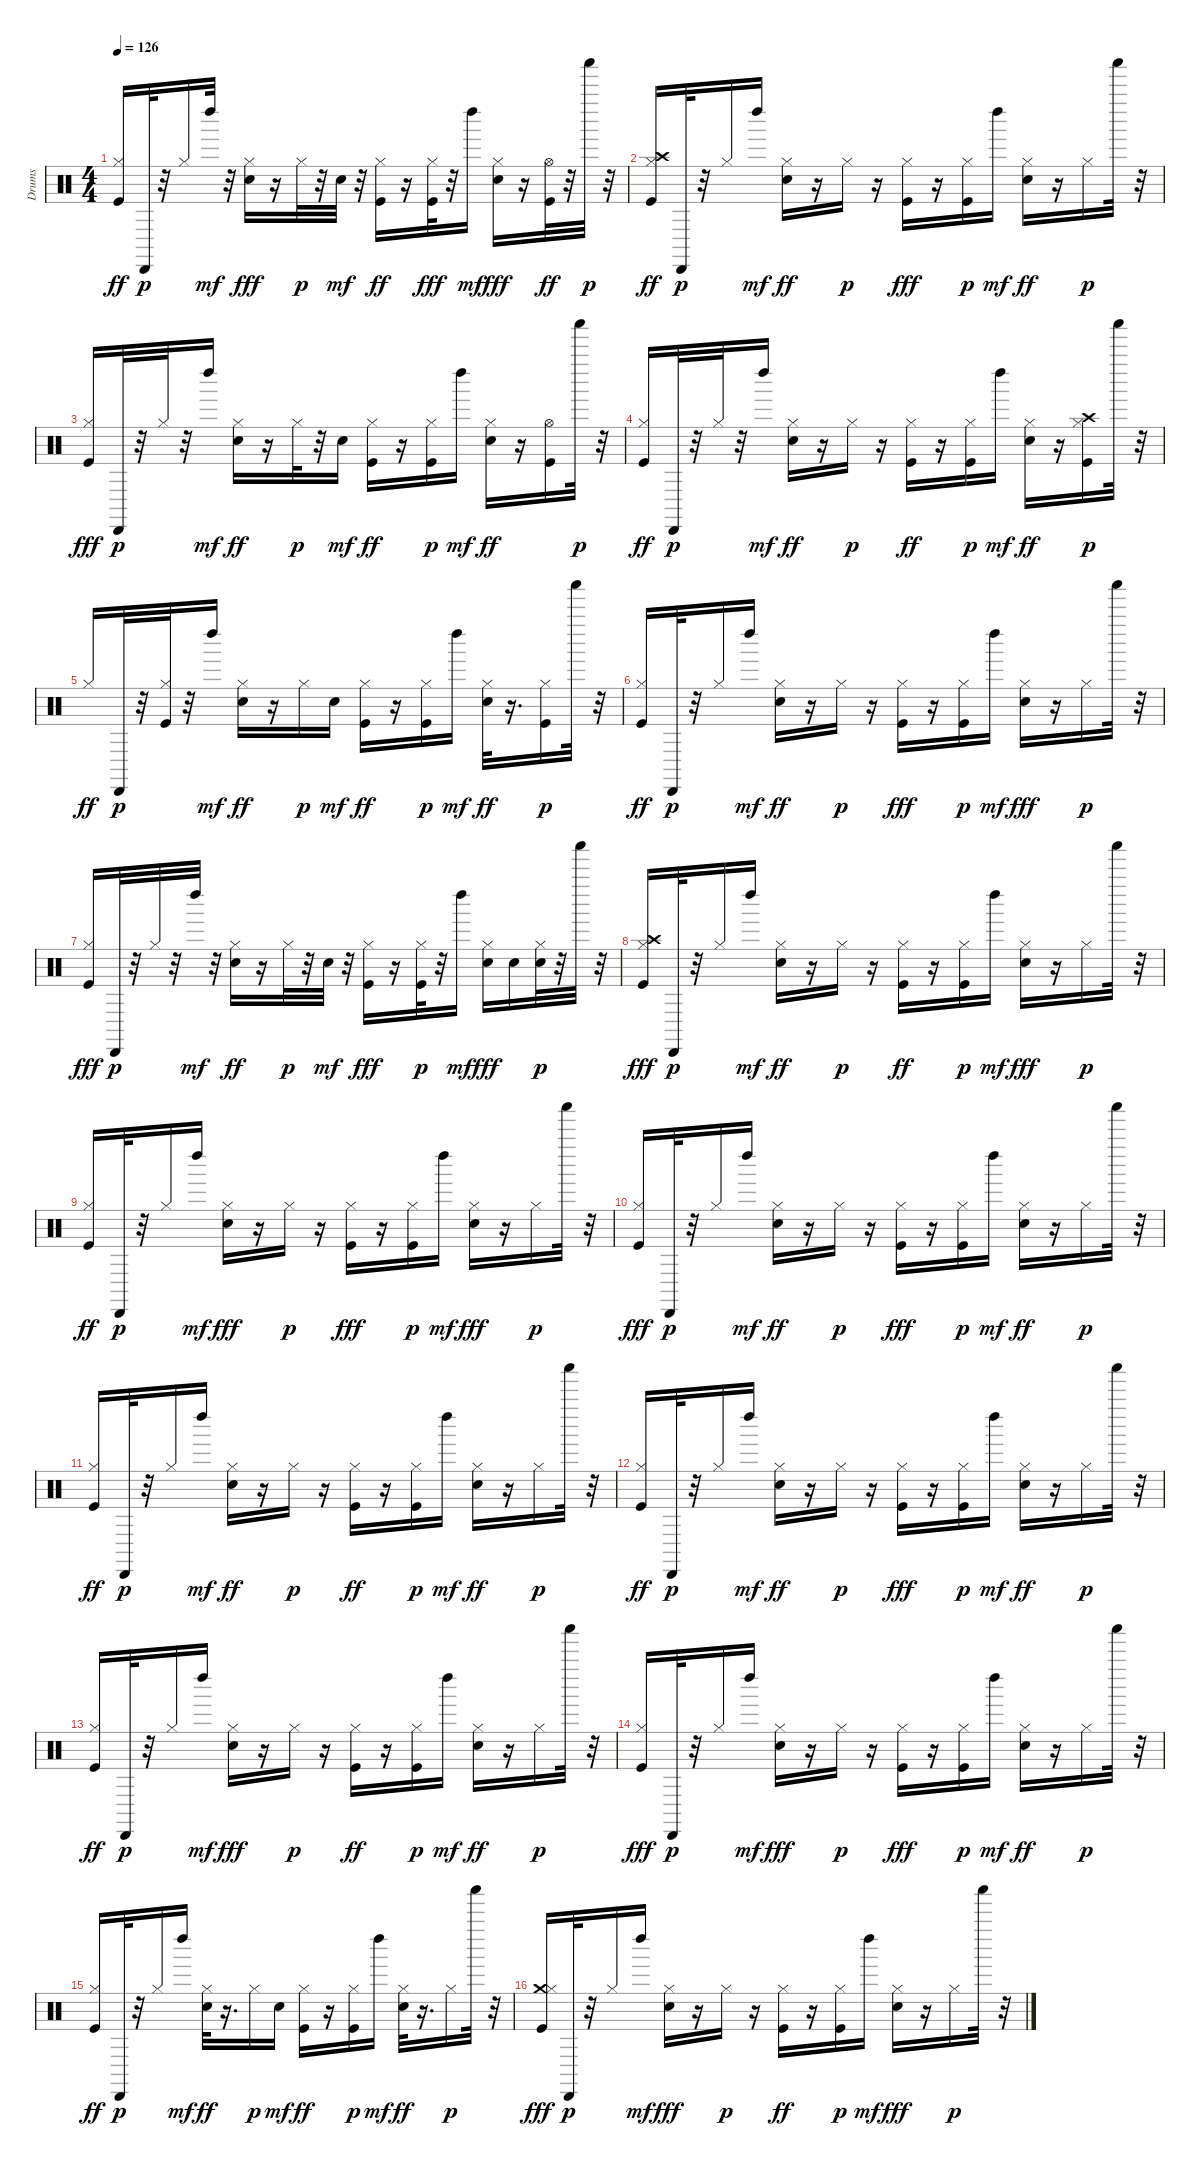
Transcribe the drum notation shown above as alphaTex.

\track ("Drums" "Drums") {instrument percussion}
\staff {score}
\articulation defaults
\ts (4 4)
\tempo 126
\clef neutral
\ks c
("Kick (hit)" "Hi-Hat (closed)").16{dy ff} "Cabasa (hit)".32{dy p} r.32 "Hi-Hat (closed)".16 "Left Maraca (hit)".32{dy mf} r.32 ("Hi-Hat (closed)" "Electric Snare (hit)").16{dy fff} r.16 "Hi-Hat (closed)".32{dy p} r.32 "Electric Snare (hit)".32{dy mf} r.32 ("Kick (hit)" "Hi-Hat (closed)").16{dy ff} r.16 ("Hi-Hat (closed)" "Kick (hit)").32{dy fff} r.32 "Left Maraca (hit)".16{dy mf} ("Hi-Hat (closed)" "Electric Snare (hit)").16{dy fff} r.16 ("Kick (hit)" "Hi-Hat (open)").32{dy ff} r.32 "Shaker (hit)".32{dy p} r.32 |
("Crash high (hit)" "Kick (hit)" "Hi-Hat (closed)").16{dy ff} "Cabasa (hit)".32{dy p} r.32 "Hi-Hat (closed)".16 "Left Maraca (hit)".16{dy mf} ("Electric Snare (hit)" "Hi-Hat (closed)").16{dy ff} r.16 "Hi-Hat (closed)".16{dy p} r.16 ("Hi-Hat (closed)" "Kick (hit)").16{dy fff} r.16 ("Kick (hit)" "Hi-Hat (closed)").16{dy p} "Left Maraca (hit)".16{dy mf} ("Electric Snare (hit)" "Hi-Hat (closed)").16{dy ff} r.16 "Hi-Hat (closed)".16{dy p} "Shaker (hit)".32 r.32 |
("Hi-Hat (closed)" "Kick (hit)").16{dy fff} "Cabasa (hit)".32{dy p} r.32 "Hi-Hat (closed)".32 r.32 "Left Maraca (hit)".16{dy mf} ("Electric Snare (hit)" "Hi-Hat (closed)").16{dy ff} r.16 "Hi-Hat (closed)".32{dy p} r.32 "Electric Snare (hit)".16{dy mf} ("Kick (hit)" "Hi-Hat (closed)").16{dy ff} r.16 ("Kick (hit)" "Hi-Hat (closed)").16{dy p} "Left Maraca (hit)".16{dy mf} ("Electric Snare (hit)" "Hi-Hat (closed)").16{dy ff} r.16 ("Kick (hit)" "Hi-Hat (open)").16 "Shaker (hit)".32{dy p} r.32 |
("Kick (hit)" "Hi-Hat (closed)").16{dy ff} "Cabasa (hit)".32{dy p} r.32 "Hi-Hat (closed)".32 r.32 "Left Maraca (hit)".16{dy mf} ("Electric Snare (hit)" "Hi-Hat (closed)").16{dy ff} r.16 "Hi-Hat (closed)".16{dy p} r.16 ("Kick (hit)" "Hi-Hat (closed)").16{dy ff} r.16 ("Kick (hit)" "Hi-Hat (closed)").16{dy p} "Left Maraca (hit)".16{dy mf} ("Electric Snare (hit)" "Hi-Hat (closed)").16{dy ff} r.16 ("Crash high (hit)" "Kick (hit)" "Hi-Hat (closed)").16{dy p} "Shaker (hit)".32 r.32 |
"Hi-Hat (closed)".16{dy ff} "Cabasa (hit)".32{dy p} r.32 ("Kick (hit)" "Hi-Hat (closed)").32 r.32 "Left Maraca (hit)".16{dy mf} ("Electric Snare (hit)" "Hi-Hat (closed)").16{dy ff} r.16 "Hi-Hat (closed)".16{dy p} "Electric Snare (hit)".16{dy mf} ("Kick (hit)" "Hi-Hat (closed)").16{dy ff} r.16 ("Kick (hit)" "Hi-Hat (closed)").16{dy p} "Left Maraca (hit)".16{dy mf} ("Electric Snare (hit)" "Hi-Hat (closed)").32{dy ff} r.16{d} ("Kick (hit)" "Hi-Hat (closed)").16{dy p} "Shaker (hit)".32 r.32 |
("Kick (hit)" "Hi-Hat (closed)").16{dy ff} "Cabasa (hit)".32{dy p} r.32 "Hi-Hat (closed)".16 "Left Maraca (hit)".16{dy mf} ("Electric Snare (hit)" "Hi-Hat (closed)").16{dy ff} r.16 "Hi-Hat (closed)".16{dy p} r.16 ("Hi-Hat (closed)" "Kick (hit)").16{dy fff} r.16 ("Kick (hit)" "Hi-Hat (closed)").16{dy p} "Left Maraca (hit)".16{dy mf} ("Hi-Hat (closed)" "Electric Snare (hit)").16{dy fff} r.16 "Hi-Hat (closed)".16{dy p} "Shaker (hit)".32 r.32 |
("Hi-Hat (closed)" "Kick (hit)").16{dy fff} "Cabasa (hit)".32{dy p} r.32 "Hi-Hat (closed)".32 r.32 "Left Maraca (hit)".32{dy mf} r.32 ("Electric Snare (hit)" "Hi-Hat (closed)").16{dy ff} r.16 "Hi-Hat (closed)".32{dy p} r.32 "Electric Snare (hit)".32{dy mf} r.32 ("Hi-Hat (closed)" "Kick (hit)").16{dy fff} r.16 ("Kick (hit)" "Hi-Hat (closed)").32{dy p} r.32 "Left Maraca (hit)".16{dy mf} ("Hi-Hat (closed)" "Electric Snare (hit)").16{dy fff} "Electric Snare (hit)".16 ("Electric Snare (hit)" "Hi-Hat (closed)").32{dy p} r.32 "Shaker (hit)".32 r.32 |
("Crash high (hit)" "Hi-Hat (closed)" "Kick (hit)").16{dy fff} "Cabasa (hit)".32{dy p} r.32 "Hi-Hat (closed)".16 "Left Maraca (hit)".16{dy mf} ("Electric Snare (hit)" "Hi-Hat (closed)").16{dy ff} r.16 "Hi-Hat (closed)".16{dy p} r.16 ("Kick (hit)" "Hi-Hat (closed)").16{dy ff} r.16 ("Kick (hit)" "Hi-Hat (closed)").16{dy p} "Left Maraca (hit)".16{dy mf} ("Hi-Hat (closed)" "Electric Snare (hit)").16{dy fff} r.16 "Hi-Hat (closed)".16{dy p} "Shaker (hit)".32 r.32 |
("Kick (hit)" "Hi-Hat (closed)").16{dy ff} "Cabasa (hit)".32{dy p} r.32 "Hi-Hat (closed)".16 "Left Maraca (hit)".16{dy mf} ("Hi-Hat (closed)" "Electric Snare (hit)").16{dy fff} r.16 "Hi-Hat (closed)".16{dy p} r.16 ("Hi-Hat (closed)" "Kick (hit)").16{dy fff} r.16 ("Kick (hit)" "Hi-Hat (closed)").16{dy p} "Left Maraca (hit)".16{dy mf} ("Hi-Hat (closed)" "Electric Snare (hit)").16{dy fff} r.16 "Hi-Hat (closed)".16{dy p} "Shaker (hit)".32 r.32 |
("Hi-Hat (closed)" "Kick (hit)").16{dy fff} "Cabasa (hit)".32{dy p} r.32 "Hi-Hat (closed)".16 "Left Maraca (hit)".16{dy mf} ("Electric Snare (hit)" "Hi-Hat (closed)").16{dy ff} r.16 "Hi-Hat (closed)".16{dy p} r.16 ("Hi-Hat (closed)" "Kick (hit)").16{dy fff} r.16 ("Kick (hit)" "Hi-Hat (closed)").16{dy p} "Left Maraca (hit)".16{dy mf} ("Electric Snare (hit)" "Hi-Hat (closed)").16{dy ff} r.16 "Hi-Hat (closed)".16{dy p} "Shaker (hit)".32 r.32 |
("Kick (hit)" "Hi-Hat (closed)").16{dy ff} "Cabasa (hit)".32{dy p} r.32 "Hi-Hat (closed)".16 "Left Maraca (hit)".16{dy mf} ("Electric Snare (hit)" "Hi-Hat (closed)").16{dy ff} r.16 "Hi-Hat (closed)".16{dy p} r.16 ("Kick (hit)" "Hi-Hat (closed)").16{dy ff} r.16 ("Kick (hit)" "Hi-Hat (closed)").16{dy p} "Left Maraca (hit)".16{dy mf} ("Electric Snare (hit)" "Hi-Hat (closed)").16{dy ff} r.16 "Hi-Hat (closed)".16{dy p} "Shaker (hit)".32 r.32 |
("Kick (hit)" "Hi-Hat (closed)").16{dy ff} "Cabasa (hit)".32{dy p} r.32 "Hi-Hat (closed)".16 "Left Maraca (hit)".16{dy mf} ("Electric Snare (hit)" "Hi-Hat (closed)").16{dy ff} r.16 "Hi-Hat (closed)".16{dy p} r.16 ("Hi-Hat (closed)" "Kick (hit)").16{dy fff} r.16 ("Kick (hit)" "Hi-Hat (closed)").16{dy p} "Left Maraca (hit)".16{dy mf} ("Electric Snare (hit)" "Hi-Hat (closed)").16{dy ff} r.16 "Hi-Hat (closed)".16{dy p} "Shaker (hit)".32 r.32 |
("Kick (hit)" "Hi-Hat (closed)").16{dy ff} "Cabasa (hit)".32{dy p} r.32 "Hi-Hat (closed)".16 "Left Maraca (hit)".16{dy mf} ("Hi-Hat (closed)" "Electric Snare (hit)").16{dy fff} r.16 "Hi-Hat (closed)".16{dy p} r.16 ("Kick (hit)" "Hi-Hat (closed)").16{dy ff} r.16 ("Kick (hit)" "Hi-Hat (closed)").16{dy p} "Left Maraca (hit)".16{dy mf} ("Electric Snare (hit)" "Hi-Hat (closed)").16{dy ff} r.16 "Hi-Hat (closed)".16{dy p} "Shaker (hit)".32 r.32 |
("Hi-Hat (closed)" "Kick (hit)").16{dy fff} "Cabasa (hit)".32{dy p} r.32 "Hi-Hat (closed)".16 "Left Maraca (hit)".16{dy mf} ("Hi-Hat (closed)" "Electric Snare (hit)").16{dy fff} r.16 "Hi-Hat (closed)".16{dy p} r.16 ("Hi-Hat (closed)" "Kick (hit)").16{dy fff} r.16 ("Kick (hit)" "Hi-Hat (closed)").16{dy p} "Left Maraca (hit)".16{dy mf} ("Electric Snare (hit)" "Hi-Hat (closed)").16{dy ff} r.16 "Hi-Hat (closed)".16{dy p} "Shaker (hit)".32 r.32 |
("Kick (hit)" "Hi-Hat (closed)").16{dy ff} "Cabasa (hit)".32{dy p} r.32 "Hi-Hat (closed)".16 "Left Maraca (hit)".16{dy mf} ("Electric Snare (hit)" "Hi-Hat (closed)").32{dy ff} r.16{d} "Hi-Hat (closed)".16{dy p} "Electric Snare (hit)".16{dy mf} ("Kick (hit)" "Hi-Hat (closed)").16{dy ff} r.16 ("Kick (hit)" "Hi-Hat (closed)").16{dy p} "Left Maraca (hit)".16{dy mf} ("Electric Snare (hit)" "Hi-Hat (closed)").32{dy ff} r.16{d} "Hi-Hat (closed)".16{dy p} "Shaker (hit)".32 r.32 |
("Crash medium (hit)" "Hi-Hat (closed)" "Kick (hit)").16{dy fff} "Cabasa (hit)".32{dy p} r.32 "Hi-Hat (closed)".16 "Left Maraca (hit)".16{dy mf} ("Hi-Hat (closed)" "Electric Snare (hit)").16{dy fff} r.16 "Hi-Hat (closed)".16{dy p} r.16 ("Kick (hit)" "Hi-Hat (closed)").16{dy ff} r.16 ("Kick (hit)" "Hi-Hat (closed)").16{dy p} "Left Maraca (hit)".16{dy mf} ("Hi-Hat (closed)" "Electric Snare (hit)").16{dy fff} r.16 "Hi-Hat (closed)".16{dy p} "Shaker (hit)".32 r.32
